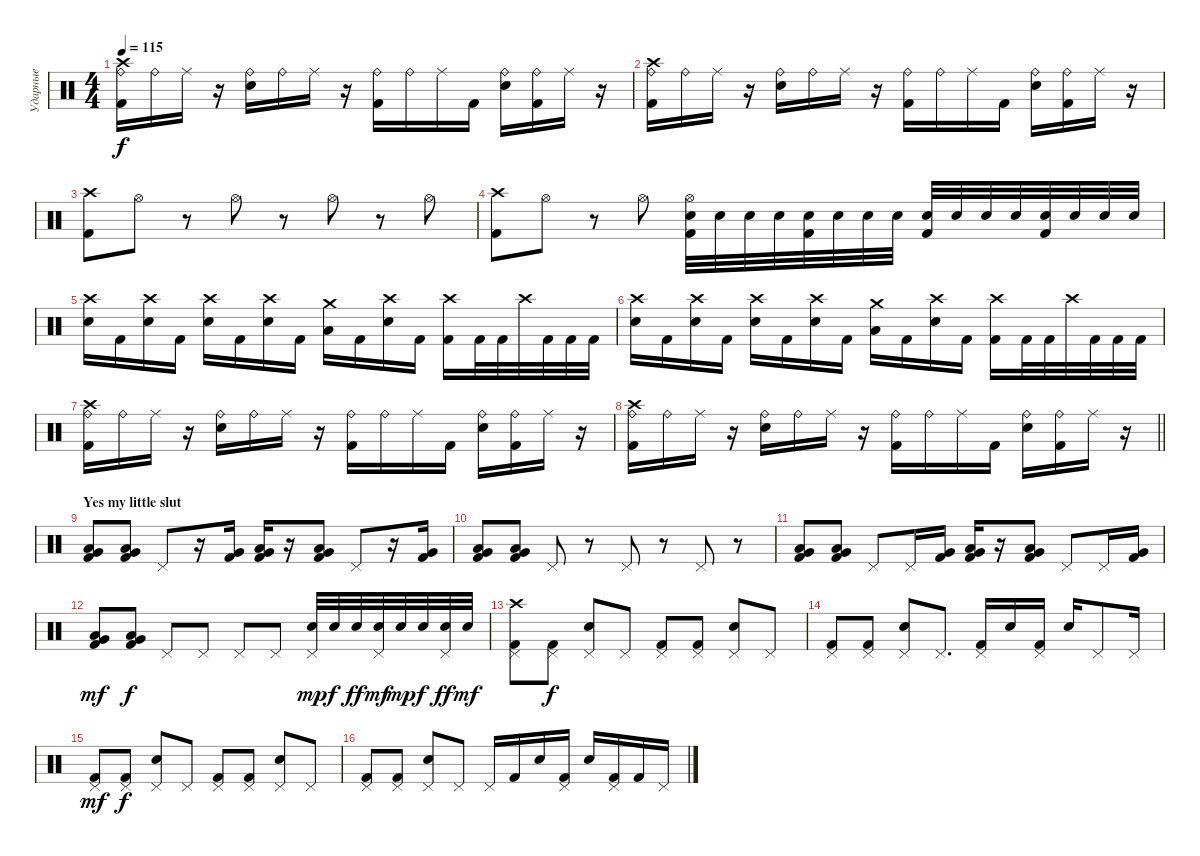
\track ("Ударные" "Ударные") {instrument percussion}
\staff {score}
\articulation defaults
\ts (4 4)
\tempo 115
\clef neutral
\ks c
("Crash high (hit)" "Ride (bell)" "Kick (hit) 2").16{dy f} "Ride (bell)".16 "Ride (middle)".16 r.16 ("Ride (bell)" "Electric Snare (hit)").16 "Ride (bell)".16 "Ride (middle)".16 r.16 ("Ride (bell)" "Kick (hit) 2").16 "Ride (bell)".16 "Ride (middle)".16 "Kick (hit) 2".16 ("Ride (bell)" "Electric Snare (hit)").16 ("Ride (bell)" "Kick (hit) 2").16 "Ride (middle)".16 r.16 |
("Crash high (hit)" "Ride (bell)" "Kick (hit) 2").16 "Ride (bell)".16 "Ride (middle)".16 r.16 ("Ride (bell)" "Electric Snare (hit)").16 "Ride (bell)".16 "Ride (middle)".16 r.16 ("Ride (bell)" "Kick (hit) 2").16 "Ride (bell)".16 "Ride (middle)".16 "Kick (hit) 2".16 ("Ride (bell)" "Electric Snare (hit)").16 ("Ride (bell)" "Kick (hit) 2").16 "Ride (middle)".16 r.16 |
("Crash high (hit)" "Kick (hit) 2").8 "Hi-Hat (open)".8 r.8 "Hi-Hat (open)".8 r.8 "Hi-Hat (open)".8 r.8 "Hi-Hat (open)".8 |
("Crash high (hit)" "Kick (hit) 2").8 "Hi-Hat (open)".8 r.8 "Hi-Hat (open)".8 ("Hi-Hat (open)" "Electric Snare (hit)" "Kick (hit) 2").32 "Electric Snare (hit)".32 "Electric Snare (hit)".32 "Electric Snare (hit)".32 ("Electric Snare (hit)" "Kick (hit) 2").32 "Electric Snare (hit)".32 "Electric Snare (hit)".32 "Electric Snare (hit)".32 ("Electric Snare (hit)" "Kick (hit) 2").32 "Electric Snare (hit)".32 "Electric Snare (hit)".32 "Electric Snare (hit)".32 ("Electric Snare (hit)" "Kick (hit) 2").32 "Electric Snare (hit)".32 "Electric Snare (hit)".32 "Electric Snare (hit)".32 |
("Crash high (hit)" "Electric Snare (hit)").16 "Kick (hit) 2".16 ("Crash high (hit)" "Electric Snare (hit)").16 "Kick (hit) 2".16 ("Crash high (hit)" "Electric Snare (hit)").16 "Kick (hit) 2".16 ("Crash high (hit)" "Electric Snare (hit)").16 "Kick (hit) 2".16 ("Crash medium (hit)" "Low Floor Tom (hit)").16 "Kick (hit) 2".16 ("Crash high (hit)" "Electric Snare (hit)").16 "Kick (hit) 2".16 ("Crash high (hit)" "Kick (hit) 2").16 "Kick (hit) 2".32 "Kick (hit) 2".32 "Crash high (hit)".32 "Kick (hit) 2".32 "Kick (hit) 2".32 "Kick (hit) 2".32 |
("Crash high (hit)" "Electric Snare (hit)").16 "Kick (hit) 2".16 ("Crash high (hit)" "Electric Snare (hit)").16 "Kick (hit) 2".16 ("Crash high (hit)" "Electric Snare (hit)").16 "Kick (hit) 2".16 ("Crash high (hit)" "Electric Snare (hit)").16 "Kick (hit) 2".16 ("Crash medium (hit)" "Low Floor Tom (hit)").16 "Kick (hit) 2".16 ("Crash high (hit)" "Electric Snare (hit)").16 "Kick (hit) 2".16 ("Crash high (hit)" "Kick (hit) 2").16 "Kick (hit) 2".32 "Kick (hit) 2".32 "Crash high (hit)".32 "Kick (hit) 2".32 "Kick (hit) 2".32 "Kick (hit) 2".32 |
("Crash high (hit)" "Ride (bell)" "Kick (hit) 2").16 "Ride (bell)".16 "Ride (middle)".16 r.16 ("Ride (bell)" "Electric Snare (hit)").16 "Ride (bell)".16 "Ride (middle)".16 r.16 ("Ride (bell)" "Kick (hit) 2").16 "Ride (bell)".16 "Ride (middle)".16 "Kick (hit) 2".16 ("Ride (bell)" "Electric Snare (hit)").16 ("Ride (bell)" "Kick (hit) 2").16 "Ride (middle)".16 r.16 |
\barLineRight lightlight
("Crash high (hit)" "Ride (bell)" "Kick (hit) 2").16 "Ride (bell)".16 "Ride (middle)".16 r.16 ("Ride (bell)" "Electric Snare (hit)").16 "Ride (bell)".16 "Ride (middle)".16 r.16 ("Ride (bell)" "Kick (hit) 2").16 "Ride (bell)".16 "Ride (middle)".16 "Kick (hit) 2".16 ("Ride (bell)" "Electric Snare (hit)").16 ("Ride (bell)" "Kick (hit) 2").16 "Ride (middle)".16 r.16 |
\section ("" "Yes my little slut ")
("Low Floor Tom (hit)" "Very Low Tom (hit)" "Kick (hit) 2").8 ("Low Floor Tom (hit)" "Very Low Tom (hit)" "Kick (hit) 2").8 "Pedal Hi-Hat (hit)".8 r.16 ("Very Low Tom (hit)" "Kick (hit) 2").16 ("Low Floor Tom (hit)" "Very Low Tom (hit)" "Kick (hit) 2").16 r.16 ("Low Floor Tom (hit)" "Very Low Tom (hit)" "Kick (hit) 2").8 "Pedal Hi-Hat (hit)".8 r.16 ("Very Low Tom (hit)" "Kick (hit) 2").16 |
("Low Floor Tom (hit)" "Very Low Tom (hit)" "Kick (hit) 2").8 ("Low Floor Tom (hit)" "Very Low Tom (hit)" "Kick (hit) 2").8 "Pedal Hi-Hat (hit)".8 r.8 "Pedal Hi-Hat (hit)".8 r.8 "Pedal Hi-Hat (hit)".8 r.8 |
("Low Floor Tom (hit)" "Very Low Tom (hit)" "Kick (hit) 2").8 ("Low Floor Tom (hit)" "Very Low Tom (hit)" "Kick (hit) 2").8 "Pedal Hi-Hat (hit)".8 "Pedal Hi-Hat (hit)".16 ("Very Low Tom (hit)" "Kick (hit) 2").16 ("Low Floor Tom (hit)" "Very Low Tom (hit)" "Kick (hit) 2").16 r.16 ("Low Floor Tom (hit)" "Very Low Tom (hit)" "Kick (hit) 2").8 "Pedal Hi-Hat (hit)".8 "Pedal Hi-Hat (hit)".16 ("Very Low Tom (hit)" "Kick (hit) 2").16 |
("Low Floor Tom (hit)" "Very Low Tom (hit)" "Kick (hit) 2").8{dy mf} ("Low Floor Tom (hit)" "Very Low Tom (hit)" "Kick (hit) 2").8{dy f} "Pedal Hi-Hat (hit)".8 "Pedal Hi-Hat (hit)".8 "Pedal Hi-Hat (hit)".8 "Pedal Hi-Hat (hit)".8 ("Pedal Hi-Hat (hit)" "Electric Snare (hit)").32{dy mp} "Electric Snare (hit)".32{dy f} "Electric Snare (hit)".32{dy ff} ("Pedal Hi-Hat (hit)" "Electric Snare (hit)").32{dy mf} "Electric Snare (hit)".32{dy mp} "Electric Snare (hit)".32{dy f} ("Pedal Hi-Hat (hit)" "Electric Snare (hit)").32{dy ff} "Electric Snare (hit)".32{dy mf} |
("Pedal Hi-Hat (hit)" "Crash high (hit)" "Kick (hit) 2").8 ("Pedal Hi-Hat (hit)" "Kick (hit) 2").8{dy f} ("Pedal Hi-Hat (hit)" "Electric Snare (hit)").8 "Pedal Hi-Hat (hit)".8 ("Pedal Hi-Hat (hit)" "Kick (hit) 2").8 ("Pedal Hi-Hat (hit)" "Kick (hit) 2").8 ("Pedal Hi-Hat (hit)" "Electric Snare (hit)").8 "Pedal Hi-Hat (hit)".8 |
("Pedal Hi-Hat (hit)" "Kick (hit) 2").8 ("Pedal Hi-Hat (hit)" "Kick (hit) 2").8 ("Pedal Hi-Hat (hit)" "Electric Snare (hit)").8 "Pedal Hi-Hat (hit)".8{d} ("Pedal Hi-Hat (hit)" "Kick (hit) 2").16 "Electric Snare (hit)".16 ("Pedal Hi-Hat (hit)" "Kick (hit) 2").16 "Electric Snare (hit)".16 "Pedal Hi-Hat (hit)".8 "Pedal Hi-Hat (hit)".16 |
("Pedal Hi-Hat (hit)" "Kick (hit) 2").8{dy mf} ("Pedal Hi-Hat (hit)" "Kick (hit) 2").8{dy f} ("Pedal Hi-Hat (hit)" "Electric Snare (hit)").8 "Pedal Hi-Hat (hit)".8 ("Pedal Hi-Hat (hit)" "Kick (hit) 2").8 ("Pedal Hi-Hat (hit)" "Kick (hit) 2").8 ("Pedal Hi-Hat (hit)" "Electric Snare (hit)").8 "Pedal Hi-Hat (hit)".8 |
("Pedal Hi-Hat (hit)" "Kick (hit) 2").8 ("Pedal Hi-Hat (hit)" "Kick (hit) 2").8 ("Pedal Hi-Hat (hit)" "Electric Snare (hit)").8 "Pedal Hi-Hat (hit)".8 "Pedal Hi-Hat (hit)".16 "Kick (hit) 2".16 "Electric Snare (hit)".16 ("Pedal Hi-Hat (hit)" "Kick (hit) 2").16 "Electric Snare (hit)".16 ("Pedal Hi-Hat (hit)" "Kick (hit) 2").16 "Kick (hit) 2".16 "Pedal Hi-Hat (hit)".16
